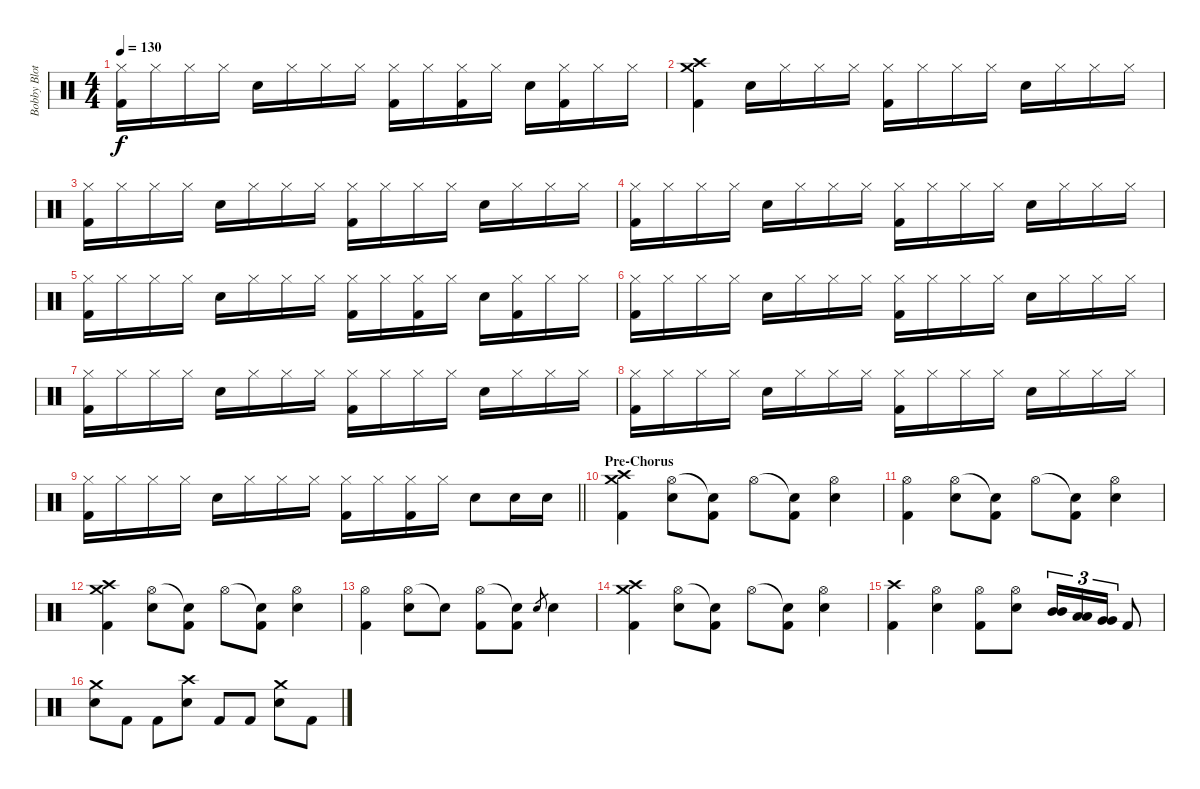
\track ("Bobby Blotzer - Drums" "Bobby Blot") {instrument percussion}
\staff {score}
\articulation defaults
\ts (4 4)
\tempo 130
\clef neutral
\ks c
("Hi-Hat (closed)" "Kick (hit) 2").16{dy f} "Hi-Hat (closed)".16 "Hi-Hat (closed)".16 "Hi-Hat (closed)".16 "Snare (hit) 2".16 "Hi-Hat (closed)".16 "Hi-Hat (closed)".16 "Hi-Hat (closed)".16 ("Hi-Hat (closed)" "Kick (hit) 2").16 "Hi-Hat (closed)".16 ("Hi-Hat (closed)" "Kick (hit) 2").16 "Hi-Hat (closed)".16 "Snare (hit) 2".16 ("Hi-Hat (closed)" "Kick (hit) 2").16 "Hi-Hat (closed)".16 "Hi-Hat (closed)".16 |
("Crash medium (hit)" "Crash high (hit)" "Kick (hit) 2").4 "Snare (hit) 2".16 "Hi-Hat (closed)".16 "Hi-Hat (closed)".16 "Hi-Hat (closed)".16 ("Hi-Hat (closed)" "Kick (hit) 2").16 "Hi-Hat (closed)".16 "Hi-Hat (closed)".16 "Hi-Hat (closed)".16 "Snare (hit) 2".16 "Hi-Hat (closed)".16 "Hi-Hat (closed)".16 "Hi-Hat (closed)".16 |
("Hi-Hat (closed)" "Kick (hit) 2").16 "Hi-Hat (closed)".16 "Hi-Hat (closed)".16 "Hi-Hat (closed)".16 "Snare (hit) 2".16 "Hi-Hat (closed)".16 "Hi-Hat (closed)".16 "Hi-Hat (closed)".16 ("Hi-Hat (closed)" "Kick (hit) 2").16 "Hi-Hat (closed)".16 "Hi-Hat (closed)".16 "Hi-Hat (closed)".16 "Snare (hit) 2".16 "Hi-Hat (closed)".16 "Hi-Hat (closed)".16 "Hi-Hat (closed)".16 |
("Hi-Hat (closed)" "Kick (hit) 2").16 "Hi-Hat (closed)".16 "Hi-Hat (closed)".16 "Hi-Hat (closed)".16 "Snare (hit) 2".16 "Hi-Hat (closed)".16 "Hi-Hat (closed)".16 "Hi-Hat (closed)".16 ("Hi-Hat (closed)" "Kick (hit) 2").16 "Hi-Hat (closed)".16 "Hi-Hat (closed)".16 "Hi-Hat (closed)".16 "Snare (hit) 2".16 "Hi-Hat (closed)".16 "Hi-Hat (closed)".16 "Hi-Hat (closed)".16 |
("Hi-Hat (closed)" "Kick (hit) 2").16 "Hi-Hat (closed)".16 "Hi-Hat (closed)".16 "Hi-Hat (closed)".16 "Snare (hit) 2".16 "Hi-Hat (closed)".16 "Hi-Hat (closed)".16 "Hi-Hat (closed)".16 ("Hi-Hat (closed)" "Kick (hit) 2").16 "Hi-Hat (closed)".16 ("Hi-Hat (closed)" "Kick (hit) 2").16 "Hi-Hat (closed)".16 "Snare (hit) 2".16 ("Hi-Hat (closed)" "Kick (hit) 2").16 "Hi-Hat (closed)".16 "Hi-Hat (closed)".16 |
("Hi-Hat (closed)" "Kick (hit) 2").16 "Hi-Hat (closed)".16 "Hi-Hat (closed)".16 "Hi-Hat (closed)".16 "Snare (hit) 2".16 "Hi-Hat (closed)".16 "Hi-Hat (closed)".16 "Hi-Hat (closed)".16 ("Hi-Hat (closed)" "Kick (hit) 2").16 "Hi-Hat (closed)".16 "Hi-Hat (closed)".16 "Hi-Hat (closed)".16 "Snare (hit) 2".16 "Hi-Hat (closed)".16 "Hi-Hat (closed)".16 "Hi-Hat (closed)".16 |
("Hi-Hat (closed)" "Kick (hit) 2").16 "Hi-Hat (closed)".16 "Hi-Hat (closed)".16 "Hi-Hat (closed)".16 "Snare (hit) 2".16 "Hi-Hat (closed)".16 "Hi-Hat (closed)".16 "Hi-Hat (closed)".16 ("Hi-Hat (closed)" "Kick (hit) 2").16 "Hi-Hat (closed)".16 "Hi-Hat (closed)".16 "Hi-Hat (closed)".16 "Snare (hit) 2".16 "Hi-Hat (closed)".16 "Hi-Hat (closed)".16 "Hi-Hat (closed)".16 |
("Hi-Hat (closed)" "Kick (hit) 2").16 "Hi-Hat (closed)".16 "Hi-Hat (closed)".16 "Hi-Hat (closed)".16 "Snare (hit) 2".16 "Hi-Hat (closed)".16 "Hi-Hat (closed)".16 "Hi-Hat (closed)".16 ("Hi-Hat (closed)" "Kick (hit) 2").16 "Hi-Hat (closed)".16 "Hi-Hat (closed)".16 "Hi-Hat (closed)".16 "Snare (hit) 2".16 "Hi-Hat (closed)".16 "Hi-Hat (closed)".16 "Hi-Hat (closed)".16 |
\barLineRight lightlight
("Hi-Hat (closed)" "Kick (hit) 2").16 "Hi-Hat (closed)".16 "Hi-Hat (closed)".16 "Hi-Hat (closed)".16 "Snare (hit) 2".16 "Hi-Hat (closed)".16 "Hi-Hat (closed)".16 "Hi-Hat (closed)".16 ("Hi-Hat (closed)" "Kick (hit) 2").16 "Hi-Hat (closed)".16 ("Hi-Hat (closed)" "Kick (hit) 2").16 "Hi-Hat (closed)".16 "Snare (hit) 2".8 "Snare (hit) 2".16 "Snare (hit) 2".16 |
\section ("" "Pre-Chorus")
("Crash medium (hit)" "Crash high (hit)" "Kick (hit) 2").4 ("Hi-Hat (open)" "Snare (hit) 2").8 ("Snare (hit)"{t} "Kick (hit) 2").8 "Hi-Hat (open)".8 ("Snare (hit)"{t} "Kick (hit) 2").8 ("Hi-Hat (open)" "Snare (hit) 2").4 |
("Hi-Hat (open)" "Kick (hit) 2").4 ("Hi-Hat (open)" "Snare (hit) 2").8 ("Snare (hit)"{t} "Kick (hit) 2").8 "Hi-Hat (open)".8 ("Snare (hit)"{t} "Kick (hit) 2").8 ("Hi-Hat (open)" "Snare (hit) 2").4 |
("Crash medium (hit)" "Crash high (hit)" "Kick (hit) 2").4 ("Hi-Hat (open)" "Snare (hit) 2").8 ("Snare (hit)"{t} "Kick (hit) 2").8 "Hi-Hat (open)".8 ("Snare (hit)"{t} "Kick (hit) 2").8 ("Hi-Hat (open)" "Snare (hit) 2").4 |
("Hi-Hat (open)" "Kick (hit) 2").4 ("Hi-Hat (open)" "Snare (hit) 2").8 "Snare (hit)"{t}.8 ("Hi-Hat (open)" "Kick (hit) 2").8 ("Snare (hit)"{t} "Kick (hit) 2").8 "Snare (hit) 2".8{gr} "Snare (hit) 2".4 |
("Crash medium (hit)" "Crash high (hit)" "Kick (hit) 2").4 ("Hi-Hat (open)" "Snare (hit) 2").8 ("Snare (hit)"{t} "Kick (hit) 2").8 "Hi-Hat (open)".8 ("Snare (hit)"{t} "Kick (hit) 2").8 ("Hi-Hat (open)" "Snare (hit) 2").4 |
("Crash high (hit)" "Kick (hit) 2").4 ("Hi-Hat (open)" "Snare (hit) 2").4{beam merge} ("Hi-Hat (open)" "Kick (hit) 2").8 ("Hi-Hat (open)" "Snare (hit) 2").8 ("Mid Tom (hit)" "Mid Tom (hit)").16{tu (3 2)} ("Low Tom (hit)" "Low Tom (hit)").16{tu (3 2)} ("Very Low Tom (hit)" "Very Low Tom (hit)").16{tu (3 2)} "Kick (hit) 2".8 |
("Crash medium (hit)" "Snare (hit) 2").8 "Kick (hit) 2".8 "Kick (hit) 2".8 ("Crash high (hit)" "Snare (hit) 2").8 "Kick (hit) 2".8 "Kick (hit) 2".8 ("Crash medium (hit)" "Snare (hit) 2").8 "Kick (hit) 2".8
